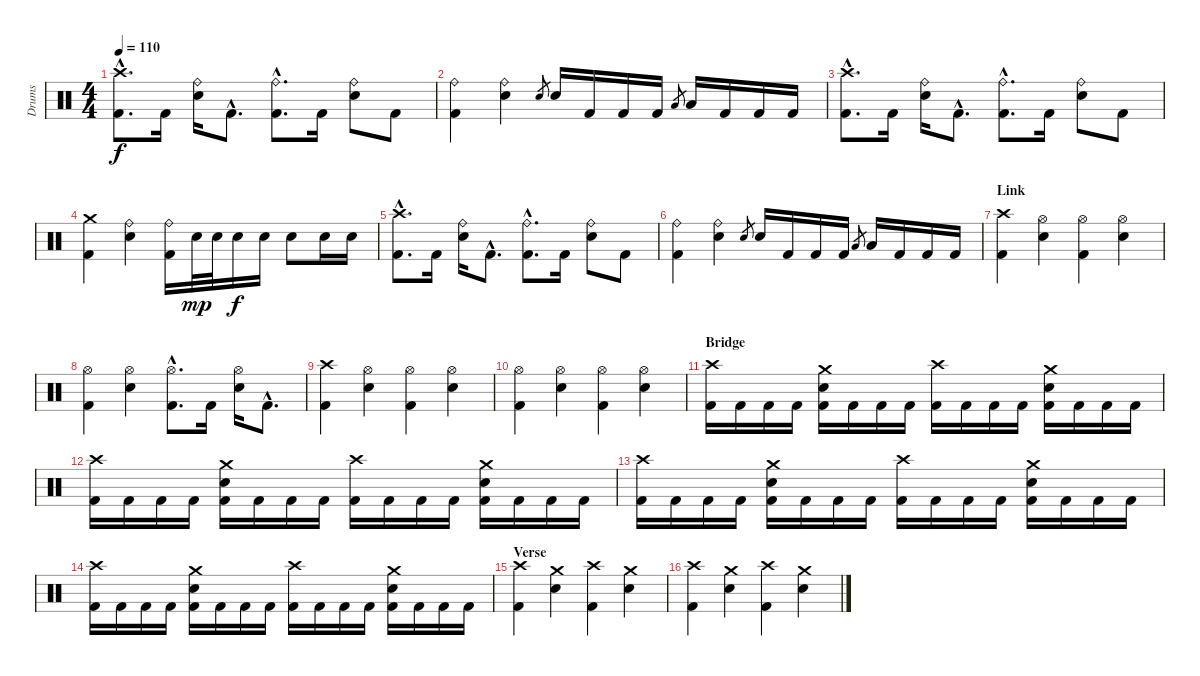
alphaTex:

\track ("Drums" "Drums") {instrument percussion}
\staff {score}
\articulation defaults
\ts (4 4)
\tempo 110
\clef neutral
\ks c
("Crash high (hit)"{hac} "Kick (hit) 2"{hac}).8{d dy f} "Kick (hit) 2".16 ("Ride (bell)" "Electric Snare (hit)").16 "Kick (hit) 2"{hac}.8{d} ("Ride (bell)"{hac} "Kick (hit) 2"{hac}).8{d} "Kick (hit) 2".16 ("Ride (bell)" "Electric Snare (hit)").8 "Kick (hit) 2".8 |
("Ride (bell)" "Kick (hit) 2").4 ("Ride (bell)" "Electric Snare (hit)").4 "Electric Snare (hit)".8{gr} "Electric Snare (hit)".16 "Kick (hit) 2".16 "Kick (hit) 2".16 "Kick (hit) 2".16 "Low Tom (hit)".8{gr} "Low Tom (hit)".16 "Kick (hit) 2".16 "Kick (hit) 2".16 "Kick (hit) 2".16 |
("Crash high (hit)"{hac} "Kick (hit) 2"{hac}).8{d} "Kick (hit) 2".16 ("Ride (bell)" "Electric Snare (hit)").16 "Kick (hit) 2"{hac}.8{d} ("Ride (bell)"{hac} "Kick (hit) 2"{hac}).8{d} "Kick (hit) 2".16 ("Ride (bell)" "Electric Snare (hit)").8 "Kick (hit) 2".8 |
("Crash medium (hit)" "Kick (hit) 2").4 ("Ride (bell)" "Electric Snare (hit)").4 ("Ride (bell)" "Kick (hit) 2").16 "Electric Snare (hit)".32{dy mp} "Electric Snare (hit)".32 "Electric Snare (hit)".16{dy f} "Electric Snare (hit)".16 "Electric Snare (hit)".8 "Electric Snare (hit)".16 "Electric Snare (hit)".16 |
("Crash high (hit)"{hac} "Kick (hit) 2"{hac}).8{d} "Kick (hit) 2".16 ("Ride (bell)" "Electric Snare (hit)").16 "Kick (hit) 2"{hac}.8{d} ("Ride (bell)"{hac} "Kick (hit) 2"{hac}).8{d} "Kick (hit) 2".16 ("Ride (bell)" "Electric Snare (hit)").8 "Kick (hit) 2".8 |
("Ride (bell)" "Kick (hit) 2").4 ("Ride (bell)" "Electric Snare (hit)").4 "Electric Snare (hit)".8{gr} "Electric Snare (hit)".16 "Kick (hit) 2".16 "Kick (hit) 2".16 "Kick (hit) 2".16 "Low Tom (hit)".8{gr} "Low Tom (hit)".16 "Kick (hit) 2".16 "Kick (hit) 2".16 "Kick (hit) 2".16 |
\section ("" "Link")
("Crash high (hit)" "Kick (hit) 2").4 ("Hi-Hat (open)" "Electric Snare (hit)").4 ("Hi-Hat (open)" "Kick (hit) 2").4 ("Hi-Hat (open)" "Electric Snare (hit)").4 |
("Hi-Hat (open)" "Kick (hit) 2").4 ("Hi-Hat (open)" "Electric Snare (hit)").4 ("Hi-Hat (open)"{hac} "Kick (hit) 2"{hac}).8{d} "Kick (hit) 2".16 ("Hi-Hat (open)" "Electric Snare (hit)").16 "Kick (hit) 2"{hac}.8{d} |
("Crash high (hit)" "Kick (hit) 2").4 ("Hi-Hat (open)" "Electric Snare (hit)").4 ("Hi-Hat (open)" "Kick (hit) 2").4 ("Hi-Hat (open)" "Electric Snare (hit)").4 |
("Hi-Hat (open)" "Kick (hit) 2").4 ("Hi-Hat (open)" "Electric Snare (hit)").4 ("Hi-Hat (open)" "Kick (hit) 2").4 ("Hi-Hat (open)" "Electric Snare (hit)").4 |
\section ("" "Bridge")
("Crash high (hit)" "Kick (hit) 2").16 "Kick (hit) 2".16 "Kick (hit) 2".16 "Kick (hit) 2".16 ("Crash medium (hit)" "Electric Snare (hit)" "Kick (hit) 2").16 "Kick (hit) 2".16 "Kick (hit) 2".16 "Kick (hit) 2".16 ("Crash high (hit)" "Kick (hit) 2").16 "Kick (hit) 2".16 "Kick (hit) 2".16 "Kick (hit) 2".16 ("Crash medium (hit)" "Electric Snare (hit)" "Kick (hit) 2").16 "Kick (hit) 2".16 "Kick (hit) 2".16 "Kick (hit) 2".16 |
("Crash high (hit)" "Kick (hit) 2").16 "Kick (hit) 2".16 "Kick (hit) 2".16 "Kick (hit) 2".16 ("Crash medium (hit)" "Electric Snare (hit)" "Kick (hit) 2").16 "Kick (hit) 2".16 "Kick (hit) 2".16 "Kick (hit) 2".16 ("Crash high (hit)" "Kick (hit) 2").16 "Kick (hit) 2".16 "Kick (hit) 2".16 "Kick (hit) 2".16 ("Crash medium (hit)" "Electric Snare (hit)" "Kick (hit) 2").16 "Kick (hit) 2".16 "Kick (hit) 2".16 "Kick (hit) 2".16 |
("Crash high (hit)" "Kick (hit) 2").16 "Kick (hit) 2".16 "Kick (hit) 2".16 "Kick (hit) 2".16 ("Crash medium (hit)" "Electric Snare (hit)" "Kick (hit) 2").16 "Kick (hit) 2".16 "Kick (hit) 2".16 "Kick (hit) 2".16 ("Crash high (hit)" "Kick (hit) 2").16 "Kick (hit) 2".16 "Kick (hit) 2".16 "Kick (hit) 2".16 ("Crash medium (hit)" "Electric Snare (hit)" "Kick (hit) 2").16 "Kick (hit) 2".16 "Kick (hit) 2".16 "Kick (hit) 2".16 |
("Crash high (hit)" "Kick (hit) 2").16 "Kick (hit) 2".16 "Kick (hit) 2".16 "Kick (hit) 2".16 ("Crash medium (hit)" "Electric Snare (hit)" "Kick (hit) 2").16 "Kick (hit) 2".16 "Kick (hit) 2".16 "Kick (hit) 2".16 ("Crash high (hit)" "Kick (hit) 2").16 "Kick (hit) 2".16 "Kick (hit) 2".16 "Kick (hit) 2".16 ("Crash medium (hit)" "Electric Snare (hit)" "Kick (hit) 2").16 "Kick (hit) 2".16 "Kick (hit) 2".16 "Kick (hit) 2".16 |
\section ("" "Verse")
("Crash high (hit)" "Kick (hit) 2").4 ("Crash medium (hit)" "Electric Snare (hit)").4 ("Crash high (hit)" "Kick (hit) 2").4 ("Crash medium (hit)" "Electric Snare (hit)").4 |
("Crash high (hit)" "Kick (hit) 2").4 ("Crash medium (hit)" "Electric Snare (hit)").4 ("Crash high (hit)" "Kick (hit) 2").4 ("Crash medium (hit)" "Electric Snare (hit)").4
